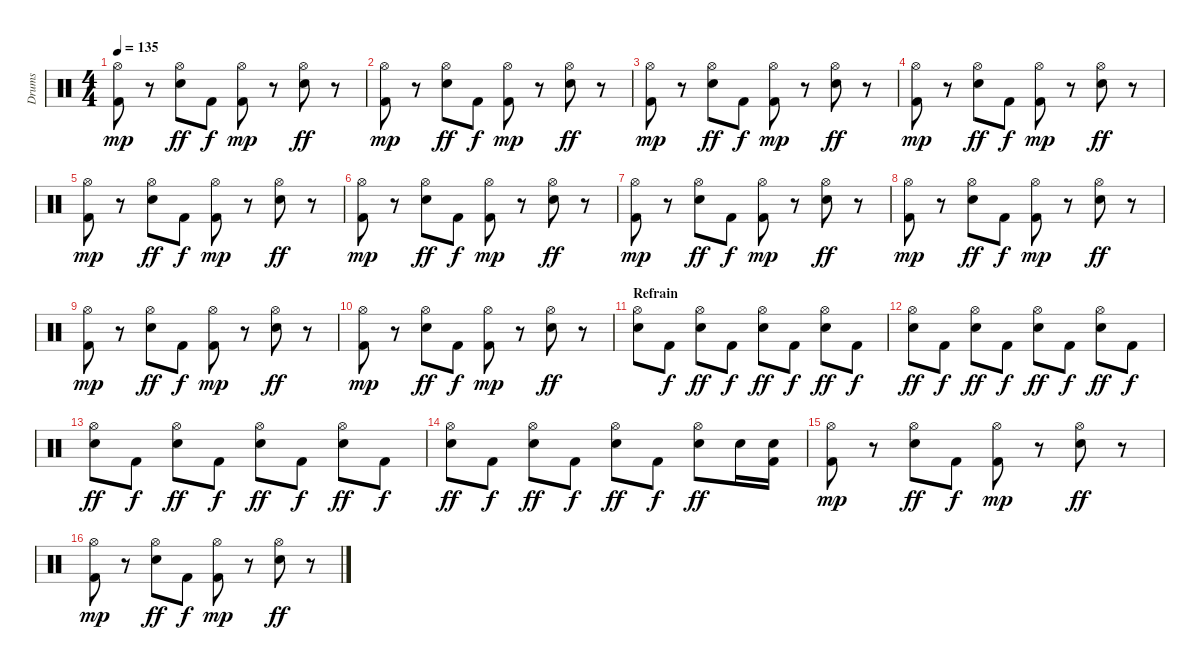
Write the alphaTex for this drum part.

\track ("Drums" "Drums") {instrument percussion}
\staff {score}
\articulation defaults
\ts (4 4)
\tempo 135
\clef neutral
\ks c
("Hi-Hat (open)" "Kick (hit) 2").8{dy mp} r.8 ("Hi-Hat (open)" "Electric Snare (hit)").8{dy ff} "Kick (hit) 2".8{dy f} ("Hi-Hat (open)" "Kick (hit) 2").8{dy mp} r.8 ("Hi-Hat (open)" "Electric Snare (hit)").8{dy ff} r.8 |
("Hi-Hat (open)" "Kick (hit) 2").8{dy mp} r.8 ("Hi-Hat (open)" "Electric Snare (hit)").8{dy ff} "Kick (hit) 2".8{dy f} ("Hi-Hat (open)" "Kick (hit) 2").8{dy mp} r.8 ("Hi-Hat (open)" "Electric Snare (hit)").8{dy ff} r.8 |
("Hi-Hat (open)" "Kick (hit) 2").8{dy mp} r.8 ("Hi-Hat (open)" "Electric Snare (hit)").8{dy ff} "Kick (hit) 2".8{dy f} ("Hi-Hat (open)" "Kick (hit) 2").8{dy mp} r.8 ("Hi-Hat (open)" "Electric Snare (hit)").8{dy ff} r.8 |
("Hi-Hat (open)" "Kick (hit) 2").8{dy mp} r.8 ("Hi-Hat (open)" "Electric Snare (hit)").8{dy ff} "Kick (hit) 2".8{dy f} ("Hi-Hat (open)" "Kick (hit) 2").8{dy mp} r.8 ("Hi-Hat (open)" "Electric Snare (hit)").8{dy ff} r.8 |
("Hi-Hat (open)" "Kick (hit) 2").8{dy mp} r.8 ("Hi-Hat (open)" "Electric Snare (hit)").8{dy ff} "Kick (hit) 2".8{dy f} ("Hi-Hat (open)" "Kick (hit) 2").8{dy mp} r.8 ("Hi-Hat (open)" "Electric Snare (hit)").8{dy ff} r.8 |
("Hi-Hat (open)" "Kick (hit) 2").8{dy mp} r.8 ("Hi-Hat (open)" "Electric Snare (hit)").8{dy ff} "Kick (hit) 2".8{dy f} ("Hi-Hat (open)" "Kick (hit) 2").8{dy mp} r.8 ("Hi-Hat (open)" "Electric Snare (hit)").8{dy ff} r.8 |
("Hi-Hat (open)" "Kick (hit) 2").8{dy mp} r.8 ("Hi-Hat (open)" "Electric Snare (hit)").8{dy ff} "Kick (hit) 2".8{dy f} ("Hi-Hat (open)" "Kick (hit) 2").8{dy mp} r.8 ("Hi-Hat (open)" "Electric Snare (hit)").8{dy ff} r.8 |
("Hi-Hat (open)" "Kick (hit) 2").8{dy mp} r.8 ("Hi-Hat (open)" "Electric Snare (hit)").8{dy ff} "Kick (hit) 2".8{dy f} ("Hi-Hat (open)" "Kick (hit) 2").8{dy mp} r.8 ("Hi-Hat (open)" "Electric Snare (hit)").8{dy ff} r.8 |
("Hi-Hat (open)" "Kick (hit) 2").8{dy mp} r.8 ("Hi-Hat (open)" "Electric Snare (hit)").8{dy ff} "Kick (hit) 2".8{dy f} ("Hi-Hat (open)" "Kick (hit) 2").8{dy mp} r.8 ("Hi-Hat (open)" "Electric Snare (hit)").8{dy ff} r.8 |
("Hi-Hat (open)" "Kick (hit) 2").8{dy mp} r.8 ("Hi-Hat (open)" "Electric Snare (hit)").8{dy ff} "Kick (hit) 2".8{dy f} ("Hi-Hat (open)" "Kick (hit) 2").8{dy mp} r.8 ("Hi-Hat (open)" "Electric Snare (hit)").8{dy ff} r.8 |
\section ("" "Refrain")
("Hi-Hat (open)" "Electric Snare (hit)").8 "Kick (hit) 2".8{dy f} ("Hi-Hat (open)" "Electric Snare (hit)").8{dy ff} "Kick (hit) 2".8{dy f} ("Hi-Hat (open)" "Electric Snare (hit)").8{dy ff} "Kick (hit) 2".8{dy f} ("Hi-Hat (open)" "Electric Snare (hit)").8{dy ff} "Kick (hit) 2".8{dy f} |
("Hi-Hat (open)" "Electric Snare (hit)").8{dy ff} "Kick (hit) 2".8{dy f} ("Hi-Hat (open)" "Electric Snare (hit)").8{dy ff} "Kick (hit) 2".8{dy f} ("Hi-Hat (open)" "Electric Snare (hit)").8{dy ff} "Kick (hit) 2".8{dy f} ("Hi-Hat (open)" "Electric Snare (hit)").8{dy ff} "Kick (hit) 2".8{dy f} |
("Hi-Hat (open)" "Electric Snare (hit)").8{dy ff} "Kick (hit) 2".8{dy f} ("Hi-Hat (open)" "Electric Snare (hit)").8{dy ff} "Kick (hit) 2".8{dy f} ("Hi-Hat (open)" "Electric Snare (hit)").8{dy ff} "Kick (hit) 2".8{dy f} ("Hi-Hat (open)" "Electric Snare (hit)").8{dy ff} "Kick (hit) 2".8{dy f} |
("Hi-Hat (open)" "Electric Snare (hit)").8{dy ff} "Kick (hit) 2".8{dy f} ("Hi-Hat (open)" "Electric Snare (hit)").8{dy ff} "Kick (hit) 2".8{dy f} ("Hi-Hat (open)" "Electric Snare (hit)").8{dy ff} "Kick (hit) 2".8{dy f} ("Hi-Hat (open)" "Electric Snare (hit)").8{dy ff} "Electric Snare (hit)".16 ("Kick (hit) 2" "Electric Snare (hit)").16 |
("Hi-Hat (open)" "Kick (hit) 2").8{dy mp} r.8 ("Hi-Hat (open)" "Electric Snare (hit)").8{dy ff} "Kick (hit) 2".8{dy f} ("Hi-Hat (open)" "Kick (hit) 2").8{dy mp} r.8 ("Hi-Hat (open)" "Electric Snare (hit)").8{dy ff} r.8 |
("Hi-Hat (open)" "Kick (hit) 2").8{dy mp} r.8 ("Hi-Hat (open)" "Electric Snare (hit)").8{dy ff} "Kick (hit) 2".8{dy f} ("Hi-Hat (open)" "Kick (hit) 2").8{dy mp} r.8 ("Hi-Hat (open)" "Electric Snare (hit)").8{dy ff} r.8
